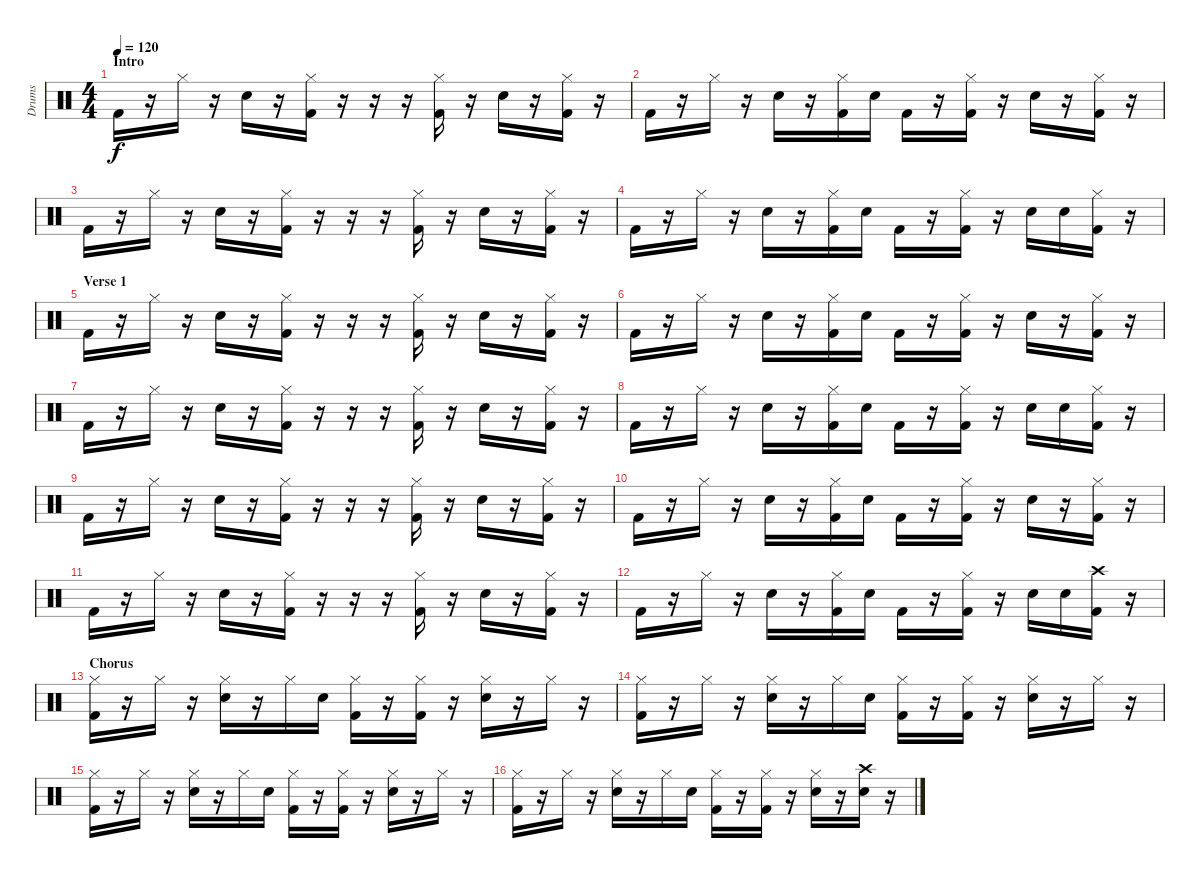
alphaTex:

\track ("Drums" "Drums") {instrument percussion}
\staff {score}
\articulation defaults
\ts (4 4)
\section ("" "Intro")
\tempo 120
\clef neutral
\ks c "Kick (hit) 2".16{dy f}
r.16 "Hi-Hat (closed)".16 r.16 "Electric Snare (hit)".16 r.16 ("Hi-Hat (closed)" "Kick (hit) 2").16 r.16 r.16 r.16 ("Hi-Hat (closed)" "Kick (hit) 2").16 r.16 "Electric Snare (hit)".16 r.16 ("Hi-Hat (closed)" "Kick (hit) 2").16 r.16 |
"Kick (hit) 2".16 r.16 "Hi-Hat (closed)".16 r.16 "Electric Snare (hit)".16 r.16 ("Hi-Hat (closed)" "Kick (hit) 2").16 "Electric Snare (hit)".16 "Kick (hit) 2".16 r.16 ("Hi-Hat (closed)" "Kick (hit) 2").16 r.16 "Electric Snare (hit)".16 r.16 ("Hi-Hat (closed)" "Kick (hit) 2").16 r.16 |
"Kick (hit) 2".16 r.16 "Hi-Hat (closed)".16 r.16 "Electric Snare (hit)".16 r.16 ("Hi-Hat (closed)" "Kick (hit) 2").16 r.16 r.16 r.16 ("Hi-Hat (closed)" "Kick (hit) 2").16 r.16 "Electric Snare (hit)".16 r.16 ("Hi-Hat (closed)" "Kick (hit) 2").16 r.16 |
"Kick (hit) 2".16 r.16 "Hi-Hat (closed)".16 r.16 "Electric Snare (hit)".16 r.16 ("Hi-Hat (closed)" "Kick (hit) 2").16 "Electric Snare (hit)".16 "Kick (hit) 2".16 r.16 ("Hi-Hat (closed)" "Kick (hit) 2").16 r.16 "Electric Snare (hit)".16 "Electric Snare (hit)".16 ("Hi-Hat (closed)" "Kick (hit) 2").16 r.16 |
\section ("" "Verse 1")
"Kick (hit) 2".16 r.16 "Hi-Hat (closed)".16 r.16 "Electric Snare (hit)".16 r.16 ("Hi-Hat (closed)" "Kick (hit) 2").16 r.16 r.16 r.16 ("Hi-Hat (closed)" "Kick (hit) 2").16 r.16 "Electric Snare (hit)".16 r.16 ("Hi-Hat (closed)" "Kick (hit) 2").16 r.16 |
"Kick (hit) 2".16 r.16 "Hi-Hat (closed)".16 r.16 "Electric Snare (hit)".16 r.16 ("Hi-Hat (closed)" "Kick (hit) 2").16 "Electric Snare (hit)".16 "Kick (hit) 2".16 r.16 ("Hi-Hat (closed)" "Kick (hit) 2").16 r.16 "Electric Snare (hit)".16 r.16 ("Hi-Hat (closed)" "Kick (hit) 2").16 r.16 |
"Kick (hit) 2".16 r.16 "Hi-Hat (closed)".16 r.16 "Electric Snare (hit)".16 r.16 ("Hi-Hat (closed)" "Kick (hit) 2").16 r.16 r.16 r.16 ("Hi-Hat (closed)" "Kick (hit) 2").16 r.16 "Electric Snare (hit)".16 r.16 ("Hi-Hat (closed)" "Kick (hit) 2").16 r.16 |
"Kick (hit) 2".16 r.16 "Hi-Hat (closed)".16 r.16 "Electric Snare (hit)".16 r.16 ("Hi-Hat (closed)" "Kick (hit) 2").16 "Electric Snare (hit)".16 "Kick (hit) 2".16 r.16 ("Hi-Hat (closed)" "Kick (hit) 2").16 r.16 "Electric Snare (hit)".16 "Electric Snare (hit)".16 ("Hi-Hat (closed)" "Kick (hit) 2").16 r.16 |
"Kick (hit) 2".16 r.16 "Hi-Hat (closed)".16 r.16 "Electric Snare (hit)".16 r.16 ("Hi-Hat (closed)" "Kick (hit) 2").16 r.16 r.16 r.16 ("Hi-Hat (closed)" "Kick (hit) 2").16 r.16 "Electric Snare (hit)".16 r.16 ("Hi-Hat (closed)" "Kick (hit) 2").16 r.16 |
"Kick (hit) 2".16 r.16 "Hi-Hat (closed)".16 r.16 "Electric Snare (hit)".16 r.16 ("Hi-Hat (closed)" "Kick (hit) 2").16 "Electric Snare (hit)".16 "Kick (hit) 2".16 r.16 ("Hi-Hat (closed)" "Kick (hit) 2").16 r.16 "Electric Snare (hit)".16 r.16 ("Hi-Hat (closed)" "Kick (hit) 2").16 r.16 |
"Kick (hit) 2".16 r.16 "Hi-Hat (closed)".16 r.16 "Electric Snare (hit)".16 r.16 ("Hi-Hat (closed)" "Kick (hit) 2").16 r.16 r.16 r.16 ("Hi-Hat (closed)" "Kick (hit) 2").16 r.16 "Electric Snare (hit)".16 r.16 ("Hi-Hat (closed)" "Kick (hit) 2").16 r.16 |
"Kick (hit) 2".16 r.16 "Hi-Hat (closed)".16 r.16 "Electric Snare (hit)".16 r.16 ("Hi-Hat (closed)" "Kick (hit) 2").16 "Electric Snare (hit)".16 "Kick (hit) 2".16 r.16 ("Hi-Hat (closed)" "Kick (hit) 2").16 r.16 "Electric Snare (hit)".16 "Electric Snare (hit)".16 ("Crash high (hit)" "Kick (hit) 2").16 r.16 |
\section ("" "Chorus")
("Hi-Hat (closed)" "Kick (hit) 2").16 r.16 "Hi-Hat (closed)".16 r.16 ("Hi-Hat (closed)" "Electric Snare (hit)").16 r.16 "Hi-Hat (closed)".16 "Electric Snare (hit)".16 ("Hi-Hat (closed)" "Kick (hit) 2").16 r.16 ("Hi-Hat (closed)" "Kick (hit) 2").16 r.16 ("Hi-Hat (closed)" "Electric Snare (hit)").16 r.16 "Hi-Hat (closed)".16 r.16 |
("Hi-Hat (closed)" "Kick (hit) 2").16 r.16 "Hi-Hat (closed)".16 r.16 ("Hi-Hat (closed)" "Electric Snare (hit)").16 r.16 "Hi-Hat (closed)".16 "Electric Snare (hit)".16 ("Hi-Hat (closed)" "Kick (hit) 2").16 r.16 ("Hi-Hat (closed)" "Kick (hit) 2").16 r.16 ("Hi-Hat (closed)" "Electric Snare (hit)").16 r.16 "Hi-Hat (closed)".16 r.16 |
("Hi-Hat (closed)" "Kick (hit) 2").16 r.16 "Hi-Hat (closed)".16 r.16 ("Hi-Hat (closed)" "Electric Snare (hit)").16 r.16 "Hi-Hat (closed)".16 "Electric Snare (hit)".16 ("Hi-Hat (closed)" "Kick (hit) 2").16 r.16 ("Hi-Hat (closed)" "Kick (hit) 2").16 r.16 ("Hi-Hat (closed)" "Electric Snare (hit)").16 r.16 "Hi-Hat (closed)".16 r.16 |
("Hi-Hat (closed)" "Kick (hit) 2").16 r.16 "Hi-Hat (closed)".16 r.16 ("Hi-Hat (closed)" "Electric Snare (hit)").16 r.16 "Hi-Hat (closed)".16 "Electric Snare (hit)".16 ("Hi-Hat (closed)" "Kick (hit) 2").16 r.16 ("Hi-Hat (closed)" "Kick (hit) 2").16 r.16 ("Hi-Hat (closed)" "Electric Snare (hit)").16 r.16 ("Crash high (hit)" "Electric Snare (hit)").16 r.16
